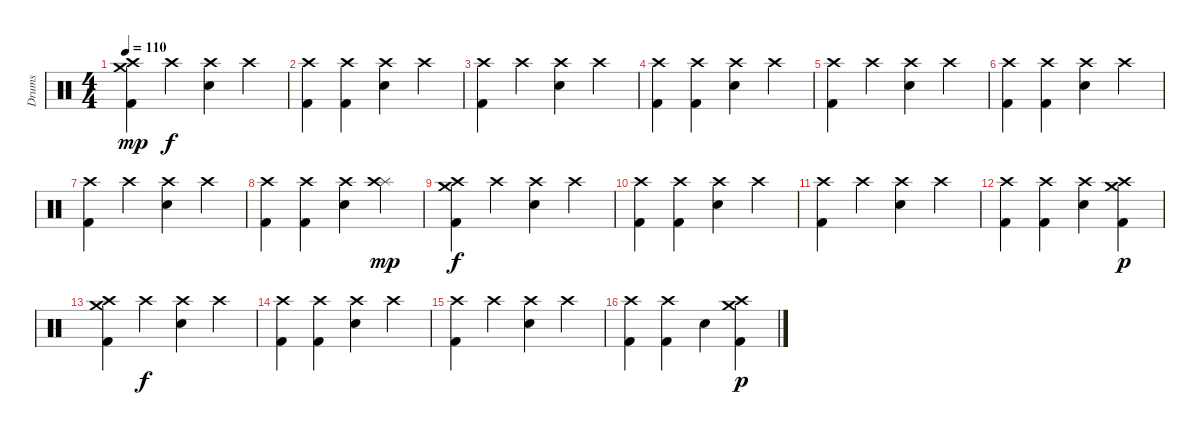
\track ("Drums" "Drums") {instrument percussion}
\staff {score}
\articulation defaults
\ts (4 4)
\tempo 110
\clef neutral
\ks c
("Crash medium (hit)" "Crash high (hit)" "Kick (hit) 2").4{dy mp} "Crash high (hit)".4{dy f} ("Crash high (hit)" "Snare (hit) 2").4 "Crash high (hit)".4 |
("Crash high (hit)" "Kick (hit) 2").4 ("Crash high (hit)" "Kick (hit) 2").4 ("Crash high (hit)" "Snare (hit) 2").4 "Crash high (hit)".4 |
("Crash high (hit)" "Kick (hit) 2").4 "Crash high (hit)".4 ("Crash high (hit)" "Snare (hit) 2").4 "Crash high (hit)".4 |
("Crash high (hit)" "Kick (hit) 2").4 ("Crash high (hit)" "Kick (hit) 2").4 ("Crash high (hit)" "Snare (hit) 2").4 "Crash high (hit)".4 |
("Crash high (hit)" "Kick (hit) 2").4 "Crash high (hit)".4 ("Crash high (hit)" "Snare (hit) 2").4 "Crash high (hit)".4 |
("Crash high (hit)" "Kick (hit) 2").4 ("Crash high (hit)" "Kick (hit) 2").4 ("Crash high (hit)" "Snare (hit) 2").4 "Crash high (hit)".4 |
("Crash high (hit)" "Kick (hit) 2").4 "Crash high (hit)".4 ("Crash high (hit)" "Snare (hit) 2").4 "Crash high (hit)".4 |
("Crash high (hit)" "Kick (hit) 2").4 ("Crash high (hit)" "Kick (hit) 2").4 ("Crash high (hit)" "Snare (hit) 2").4 ("Splash (hit)" "Crash high (hit)").4{dy mp} |
("Crash medium (hit)" "Crash high (hit)" "Kick (hit) 2").4{dy f} "Crash high (hit)".4 ("Crash high (hit)" "Snare (hit) 2").4 "Crash high (hit)".4 |
("Crash high (hit)" "Kick (hit) 2").4 ("Crash high (hit)" "Kick (hit) 2").4 ("Crash high (hit)" "Snare (hit) 2").4 "Crash high (hit)".4 |
("Crash high (hit)" "Kick (hit) 2").4 "Crash high (hit)".4 ("Crash high (hit)" "Snare (hit) 2").4 "Crash high (hit)".4 |
("Crash high (hit)" "Kick (hit) 2").4 ("Crash high (hit)" "Kick (hit) 2").4 ("Crash high (hit)" "Snare (hit) 2").4 ("Crash medium (hit)" "Crash high (hit)" "Kick (hit) 2").4{dy p} |
("Crash medium (hit)" "Crash high (hit)" "Kick (hit) 2").4 "Crash high (hit)".4{dy f} ("Crash high (hit)" "Snare (hit) 2").4 "Crash high (hit)".4 |
("Crash high (hit)" "Kick (hit) 2").4 ("Crash high (hit)" "Kick (hit) 2").4 ("Crash high (hit)" "Snare (hit) 2").4 "Crash high (hit)".4 |
("Crash high (hit)" "Kick (hit) 2").4 "Crash high (hit)".4 ("Crash high (hit)" "Snare (hit) 2").4 "Crash high (hit)".4 |
("Crash high (hit)" "Kick (hit) 2").4 ("Crash high (hit)" "Kick (hit) 2").4 "Snare (hit) 2".4 ("Crash medium (hit)" "Crash high (hit)" "Kick (hit) 2").4{dy p}
